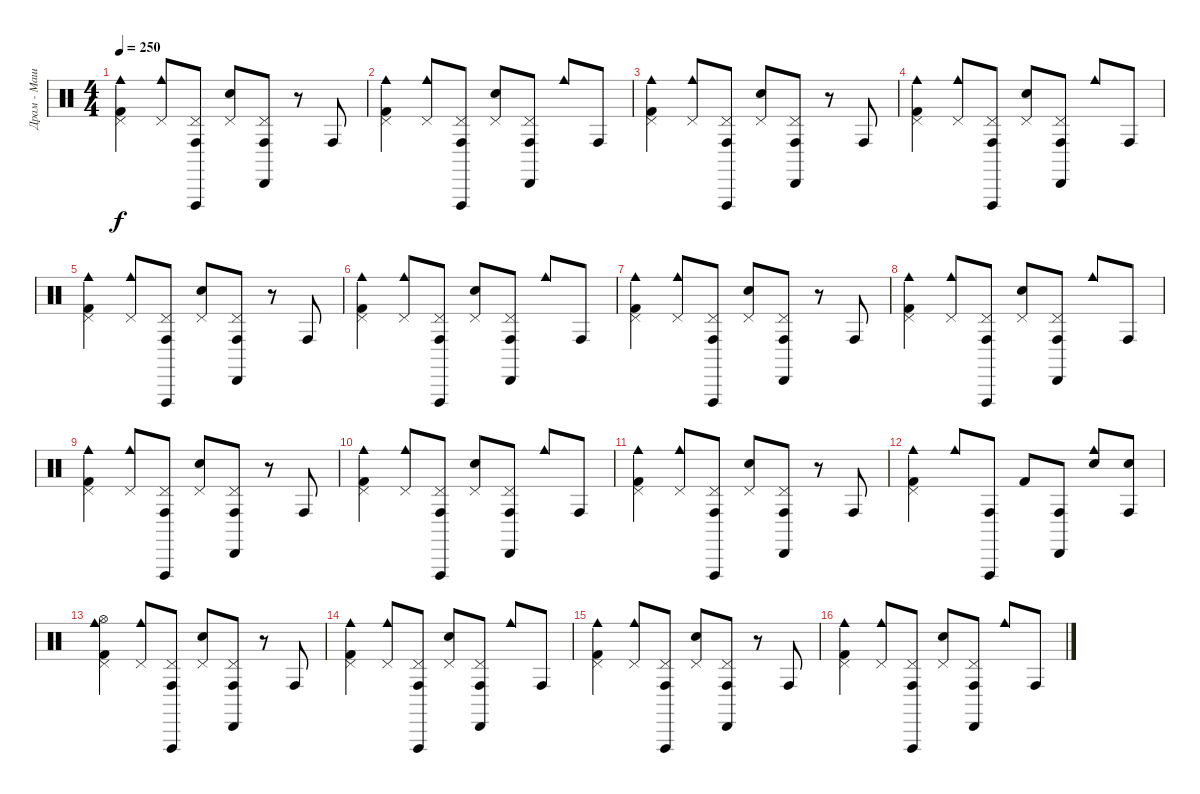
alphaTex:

\track ("Драм - Машина" "Драм - Маш") {instrument percussion}
\staff {score}
\articulation defaults
\ts (4 4)
\tempo 250
\clef neutral
\ks c
("Cowbell medium (hit)" "Pedal Hi-Hat (hit)" "Kick (hit) 2").4{dy f} ("Cowbell medium (hit)" "Pedal Hi-Hat (hit)").8 ("Conga high (hit)" "Vibraslap (hit)" "Pedal Hi-Hat (hit)").8 ("Pedal Hi-Hat (hit)" "Snare (hit) 2").8 ("Cabasa (hit)" "Conga high (hit)" "Pedal Hi-Hat (hit)").8 r.8 "Conga high (hit)".8 |
("Cowbell medium (hit)" "Pedal Hi-Hat (hit)" "Kick (hit) 2").4 ("Cowbell medium (hit)" "Pedal Hi-Hat (hit)").8 ("Conga high (hit)" "Vibraslap (hit)" "Pedal Hi-Hat (hit)").8 ("Pedal Hi-Hat (hit)" "Snare (hit) 2").8 ("Cabasa (hit)" "Conga high (hit)" "Pedal Hi-Hat (hit)").8 "Cowbell medium (hit)".8 "Conga high (hit)".8 |
("Cowbell medium (hit)" "Pedal Hi-Hat (hit)" "Kick (hit) 2").4 ("Cowbell medium (hit)" "Pedal Hi-Hat (hit)").8 ("Conga high (hit)" "Vibraslap (hit)" "Pedal Hi-Hat (hit)").8 ("Pedal Hi-Hat (hit)" "Snare (hit) 2").8 ("Cabasa (hit)" "Conga high (hit)" "Pedal Hi-Hat (hit)").8 r.8 "Conga high (hit)".8 |
("Cowbell medium (hit)" "Pedal Hi-Hat (hit)" "Kick (hit) 2").4 ("Cowbell medium (hit)" "Pedal Hi-Hat (hit)").8 ("Conga high (hit)" "Vibraslap (hit)" "Pedal Hi-Hat (hit)").8 ("Pedal Hi-Hat (hit)" "Snare (hit) 2").8 ("Cabasa (hit)" "Conga high (hit)" "Pedal Hi-Hat (hit)").8 "Cowbell medium (hit)".8 "Conga high (hit)".8 |
("Cowbell medium (hit)" "Pedal Hi-Hat (hit)" "Kick (hit) 2").4 ("Cowbell medium (hit)" "Pedal Hi-Hat (hit)").8 ("Conga high (hit)" "Vibraslap (hit)" "Pedal Hi-Hat (hit)").8 ("Pedal Hi-Hat (hit)" "Snare (hit) 2").8 ("Cabasa (hit)" "Conga high (hit)" "Pedal Hi-Hat (hit)").8 r.8 "Conga high (hit)".8 |
("Cowbell medium (hit)" "Pedal Hi-Hat (hit)" "Kick (hit) 2").4 ("Cowbell medium (hit)" "Pedal Hi-Hat (hit)").8 ("Conga high (hit)" "Vibraslap (hit)" "Pedal Hi-Hat (hit)").8 ("Pedal Hi-Hat (hit)" "Snare (hit) 2").8 ("Cabasa (hit)" "Conga high (hit)" "Pedal Hi-Hat (hit)").8 "Cowbell medium (hit)".8 "Conga high (hit)".8 |
("Cowbell medium (hit)" "Pedal Hi-Hat (hit)" "Kick (hit) 2").4 ("Cowbell medium (hit)" "Pedal Hi-Hat (hit)").8 ("Conga high (hit)" "Vibraslap (hit)" "Pedal Hi-Hat (hit)").8 ("Pedal Hi-Hat (hit)" "Snare (hit) 2").8 ("Cabasa (hit)" "Conga high (hit)" "Pedal Hi-Hat (hit)").8 r.8 "Conga high (hit)".8 |
("Cowbell medium (hit)" "Pedal Hi-Hat (hit)" "Kick (hit) 2").4 ("Cowbell medium (hit)" "Pedal Hi-Hat (hit)").8 ("Conga high (hit)" "Vibraslap (hit)" "Pedal Hi-Hat (hit)").8 ("Pedal Hi-Hat (hit)" "Snare (hit) 2").8 ("Cabasa (hit)" "Conga high (hit)" "Pedal Hi-Hat (hit)").8 "Cowbell medium (hit)".8 "Conga high (hit)".8 |
("Cowbell medium (hit)" "Pedal Hi-Hat (hit)" "Kick (hit) 2").4 ("Cowbell medium (hit)" "Pedal Hi-Hat (hit)").8 ("Conga high (hit)" "Vibraslap (hit)" "Pedal Hi-Hat (hit)").8 ("Pedal Hi-Hat (hit)" "Snare (hit) 2").8 ("Cabasa (hit)" "Conga high (hit)" "Pedal Hi-Hat (hit)").8 r.8 "Conga high (hit)".8 |
("Cowbell medium (hit)" "Pedal Hi-Hat (hit)" "Kick (hit) 2").4 ("Cowbell medium (hit)" "Pedal Hi-Hat (hit)").8 ("Conga high (hit)" "Vibraslap (hit)" "Pedal Hi-Hat (hit)").8 ("Pedal Hi-Hat (hit)" "Snare (hit) 2").8 ("Cabasa (hit)" "Conga high (hit)" "Pedal Hi-Hat (hit)").8 "Cowbell medium (hit)".8 "Conga high (hit)".8 |
("Cowbell medium (hit)" "Pedal Hi-Hat (hit)" "Kick (hit) 2").4 ("Cowbell medium (hit)" "Pedal Hi-Hat (hit)").8 ("Conga high (hit)" "Vibraslap (hit)" "Pedal Hi-Hat (hit)").8 ("Pedal Hi-Hat (hit)" "Snare (hit) 2").8 ("Cabasa (hit)" "Conga high (hit)" "Pedal Hi-Hat (hit)").8 r.8 "Conga high (hit)".8 |
("Cowbell medium (hit)" "Pedal Hi-Hat (hit)" "Kick (hit) 2").4 "Cowbell medium (hit)".8 ("Conga high (hit)" "Vibraslap (hit)").8 "Kick (hit) 2".8 ("Cabasa (hit)" "Conga high (hit)").8 ("Cowbell medium (hit)" "Electric Snare (hit)").8 ("Conga high (hit)" "Electric Snare (hit)").8 |
("Cowbell medium (hit)" "Hi-Hat (open)" "Pedal Hi-Hat (hit)" "Kick (hit) 2").4 ("Cowbell medium (hit)" "Pedal Hi-Hat (hit)").8 ("Conga high (hit)" "Vibraslap (hit)" "Pedal Hi-Hat (hit)").8 ("Pedal Hi-Hat (hit)" "Snare (hit) 2").8 ("Cabasa (hit)" "Conga high (hit)" "Pedal Hi-Hat (hit)").8 r.8 "Conga high (hit)".8 |
("Cowbell medium (hit)" "Pedal Hi-Hat (hit)" "Kick (hit) 2").4 ("Cowbell medium (hit)" "Pedal Hi-Hat (hit)").8 ("Conga high (hit)" "Vibraslap (hit)" "Pedal Hi-Hat (hit)").8 ("Pedal Hi-Hat (hit)" "Snare (hit) 2").8 ("Cabasa (hit)" "Conga high (hit)" "Pedal Hi-Hat (hit)").8 "Cowbell medium (hit)".8 "Conga high (hit)".8 |
("Cowbell medium (hit)" "Pedal Hi-Hat (hit)" "Kick (hit) 2").4 ("Cowbell medium (hit)" "Pedal Hi-Hat (hit)").8 ("Conga high (hit)" "Vibraslap (hit)" "Pedal Hi-Hat (hit)").8 ("Pedal Hi-Hat (hit)" "Snare (hit) 2").8 ("Cabasa (hit)" "Conga high (hit)" "Pedal Hi-Hat (hit)").8 r.8 "Conga high (hit)".8 |
("Cowbell medium (hit)" "Pedal Hi-Hat (hit)" "Kick (hit) 2").4 ("Cowbell medium (hit)" "Pedal Hi-Hat (hit)").8 ("Conga high (hit)" "Vibraslap (hit)" "Pedal Hi-Hat (hit)").8 ("Pedal Hi-Hat (hit)" "Snare (hit) 2").8 ("Cabasa (hit)" "Conga high (hit)" "Pedal Hi-Hat (hit)").8 "Cowbell medium (hit)".8 "Conga high (hit)".8
